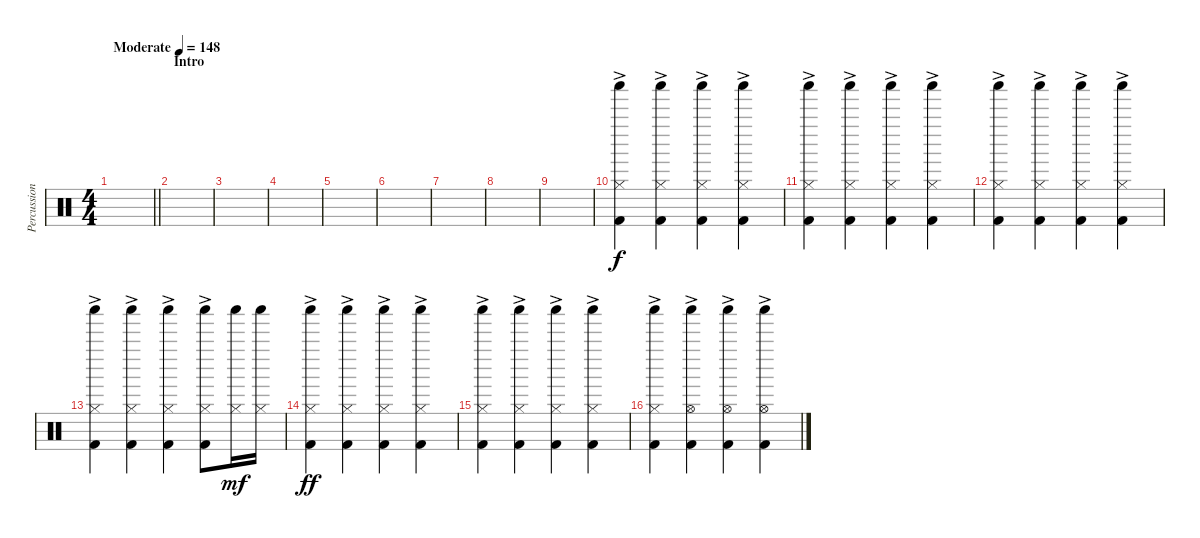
\track ("Percussion" "Percussion") {instrument percussion}
\staff {score}
\articulation defaults
\ts (4 4)
\tempo (148 "Moderate")
\clef neutral
\barLineRight lightlight
\ks c
|
\section ("" "Intro")
|
|
|
|
|
|
|
|
("Shaker (hit)" "Hi-Hat (closed)" "Kick (hit) 2"{ac}).4 ("Shaker (hit)" "Hi-Hat (closed)" "Kick (hit) 2"{ac}).4 ("Shaker (hit)" "Hi-Hat (closed)" "Kick (hit) 2"{ac}).4 ("Shaker (hit)" "Hi-Hat (closed)" "Kick (hit) 2"{ac}).4 |
("Shaker (hit)" "Hi-Hat (closed)" "Kick (hit) 2"{ac}).4 ("Shaker (hit)" "Hi-Hat (closed)" "Kick (hit) 2"{ac}).4 ("Shaker (hit)" "Hi-Hat (closed)" "Kick (hit) 2"{ac}).4 ("Shaker (hit)" "Hi-Hat (closed)" "Kick (hit) 2"{ac}).4 |
("Shaker (hit)" "Hi-Hat (closed)" "Kick (hit) 2"{ac}).4 ("Shaker (hit)" "Hi-Hat (closed)" "Kick (hit) 2"{ac}).4 ("Shaker (hit)" "Hi-Hat (closed)" "Kick (hit) 2"{ac}).4 ("Shaker (hit)" "Hi-Hat (closed)" "Kick (hit) 2"{ac}).4 |
("Shaker (hit)" "Hi-Hat (closed)" "Kick (hit) 2"{ac}).4 ("Shaker (hit)" "Hi-Hat (closed)" "Kick (hit) 2"{ac}).4 ("Shaker (hit)" "Hi-Hat (closed)" "Kick (hit) 2"{ac}).4 ("Shaker (hit)" "Hi-Hat (closed)" "Kick (hit) 2"{ac}).8 ("Shaker (hit)" "Hi-Hat (closed)").16{dy mf} ("Shaker (hit)" "Hi-Hat (closed)").16 |
("Shaker (hit)" "Hi-Hat (closed)" "Kick (hit) 2"{ac}).4{dy ff} ("Shaker (hit)" "Hi-Hat (closed)" "Kick (hit) 2"{ac}).4 ("Shaker (hit)" "Hi-Hat (closed)" "Kick (hit) 2"{ac}).4 ("Shaker (hit)" "Hi-Hat (closed)" "Kick (hit) 2"{ac}).4 |
("Shaker (hit)" "Hi-Hat (closed)" "Kick (hit) 2"{ac}).4 ("Shaker (hit)" "Hi-Hat (closed)" "Kick (hit) 2"{ac}).4 ("Shaker (hit)" "Hi-Hat (closed)" "Kick (hit) 2"{ac}).4 ("Shaker (hit)" "Hi-Hat (closed)" "Kick (hit) 2"{ac}).4 |
("Shaker (hit)" "Hi-Hat (closed)" "Kick (hit) 2"{ac}).4 ("Shaker (hit)" "Hi-Hat (open)" "Kick (hit) 2"{ac}).4 ("Shaker (hit)" "Hi-Hat (open)" "Kick (hit) 2"{ac}).4 ("Shaker (hit)" "Hi-Hat (open)" "Kick (hit) 2"{ac}).4
